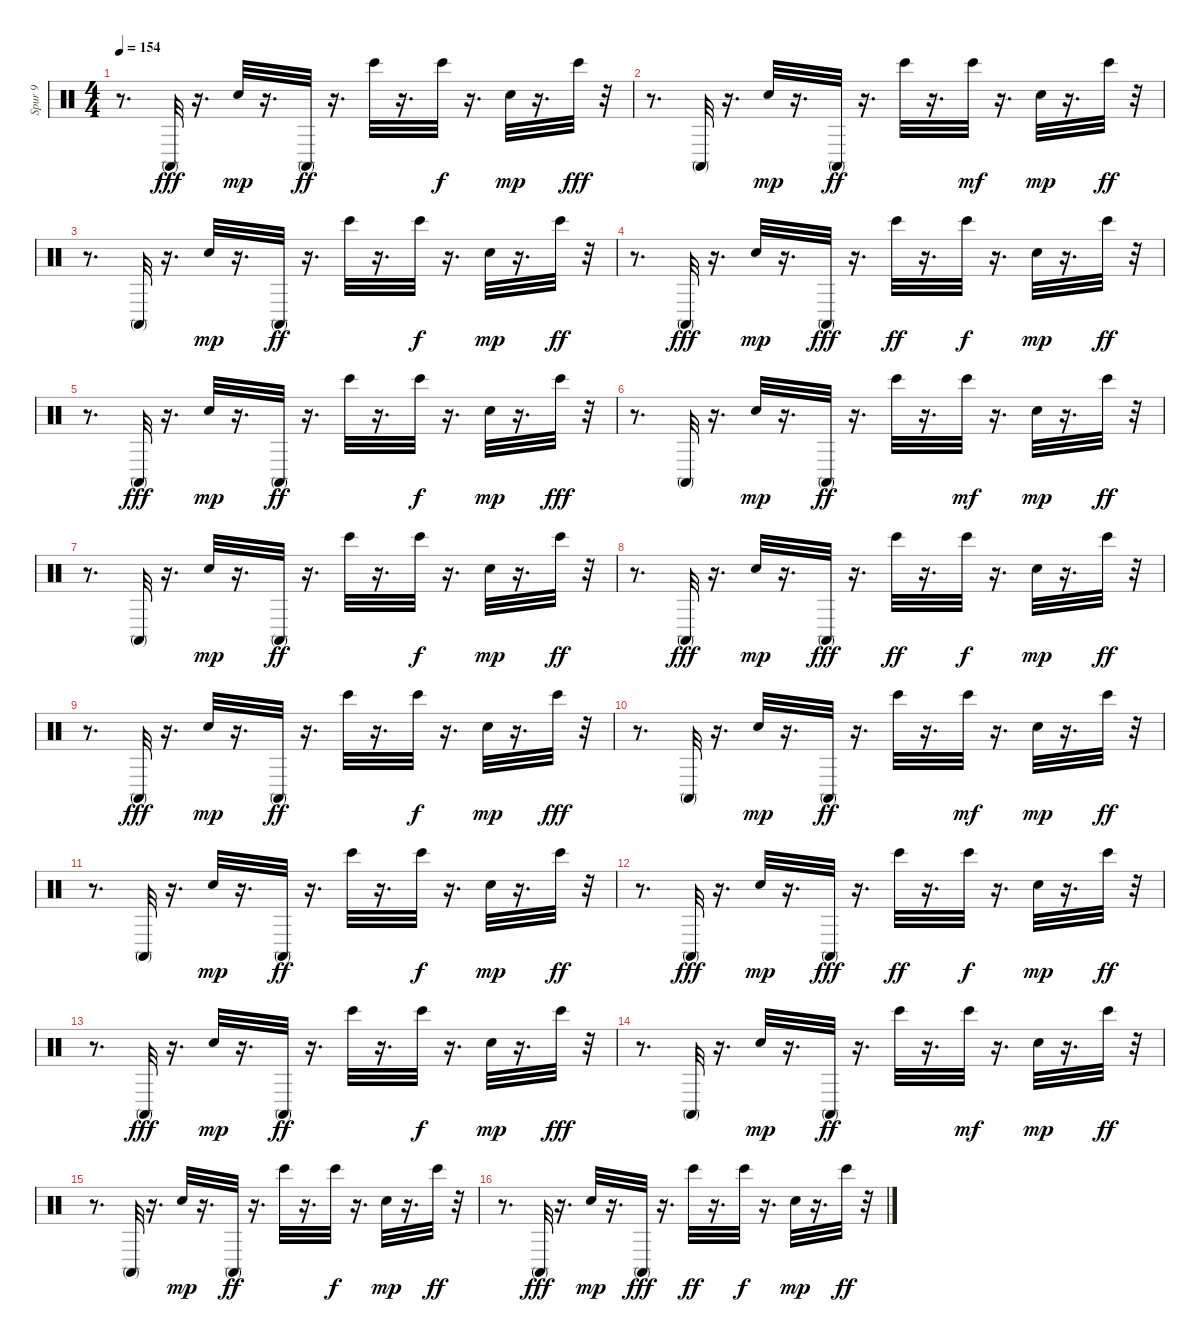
\track ("Spur 9" "Spur 9") {instrument percussion}
\staff {score}
\articulation defaults
\ts (4 4)
\tempo 154
\clef neutral
\ks c
r.8{d dy ff} "Conga high (mute)".32{dy fff} r.16{d} "Hand Clap (hit)".32{dy mp} r.16{d} "Conga high (mute)".32{dy ff} r.16{d} "Bongo High (hit)".32 r.16{d} "Bongo High (hit)".32{dy f} r.16{d} "Hand Clap (hit)".32{dy mp} r.16{d} "Bongo High (hit)".32{dy fff} r.32 |
r.8{d} "Conga high (mute)".32 r.16{d} "Hand Clap (hit)".32{dy mp} r.16{d} "Conga high (mute)".32{dy ff} r.16{d} "Bongo High (hit)".32 r.16{d} "Bongo High (hit)".32{dy mf} r.16{d} "Hand Clap (hit)".32{dy mp} r.16{d} "Bongo High (hit)".32{dy ff} r.32 |
r.8{d} "Conga high (mute)".32 r.16{d} "Hand Clap (hit)".32{dy mp} r.16{d} "Conga high (mute)".32{dy ff} r.16{d} "Bongo High (hit)".32 r.16{d} "Bongo High (hit)".32{dy f} r.16{d} "Hand Clap (hit)".32{dy mp} r.16{d} "Bongo High (hit)".32{dy ff} r.32 |
r.8{d} "Conga high (mute)".32{dy fff} r.16{d} "Hand Clap (hit)".32{dy mp} r.16{d} "Conga high (mute)".32{dy fff} r.16{d} "Bongo High (hit)".32{dy ff} r.16{d} "Bongo High (hit)".32{dy f} r.16{d} "Hand Clap (hit)".32{dy mp} r.16{d} "Bongo High (hit)".32{dy ff} r.32 |
r.8{d} "Conga high (mute)".32{dy fff} r.16{d} "Hand Clap (hit)".32{dy mp} r.16{d} "Conga high (mute)".32{dy ff} r.16{d} "Bongo High (hit)".32 r.16{d} "Bongo High (hit)".32{dy f} r.16{d} "Hand Clap (hit)".32{dy mp} r.16{d} "Bongo High (hit)".32{dy fff} r.32 |
r.8{d} "Conga high (mute)".32 r.16{d} "Hand Clap (hit)".32{dy mp} r.16{d} "Conga high (mute)".32{dy ff} r.16{d} "Bongo High (hit)".32 r.16{d} "Bongo High (hit)".32{dy mf} r.16{d} "Hand Clap (hit)".32{dy mp} r.16{d} "Bongo High (hit)".32{dy ff} r.32 |
r.8{d} "Conga high (mute)".32 r.16{d} "Hand Clap (hit)".32{dy mp} r.16{d} "Conga high (mute)".32{dy ff} r.16{d} "Bongo High (hit)".32 r.16{d} "Bongo High (hit)".32{dy f} r.16{d} "Hand Clap (hit)".32{dy mp} r.16{d} "Bongo High (hit)".32{dy ff} r.32 |
r.8{d} "Conga high (mute)".32{dy fff} r.16{d} "Hand Clap (hit)".32{dy mp} r.16{d} "Conga high (mute)".32{dy fff} r.16{d} "Bongo High (hit)".32{dy ff} r.16{d} "Bongo High (hit)".32{dy f} r.16{d} "Hand Clap (hit)".32{dy mp} r.16{d} "Bongo High (hit)".32{dy ff} r.32 |
r.8{d} "Conga high (mute)".32{dy fff} r.16{d} "Hand Clap (hit)".32{dy mp} r.16{d} "Conga high (mute)".32{dy ff} r.16{d} "Bongo High (hit)".32 r.16{d} "Bongo High (hit)".32{dy f} r.16{d} "Hand Clap (hit)".32{dy mp} r.16{d} "Bongo High (hit)".32{dy fff} r.32 |
r.8{d} "Conga high (mute)".32 r.16{d} "Hand Clap (hit)".32{dy mp} r.16{d} "Conga high (mute)".32{dy ff} r.16{d} "Bongo High (hit)".32 r.16{d} "Bongo High (hit)".32{dy mf} r.16{d} "Hand Clap (hit)".32{dy mp} r.16{d} "Bongo High (hit)".32{dy ff} r.32 |
r.8{d} "Conga high (mute)".32 r.16{d} "Hand Clap (hit)".32{dy mp} r.16{d} "Conga high (mute)".32{dy ff} r.16{d} "Bongo High (hit)".32 r.16{d} "Bongo High (hit)".32{dy f} r.16{d} "Hand Clap (hit)".32{dy mp} r.16{d} "Bongo High (hit)".32{dy ff} r.32 |
r.8{d} "Conga high (mute)".32{dy fff} r.16{d} "Hand Clap (hit)".32{dy mp} r.16{d} "Conga high (mute)".32{dy fff} r.16{d} "Bongo High (hit)".32{dy ff} r.16{d} "Bongo High (hit)".32{dy f} r.16{d} "Hand Clap (hit)".32{dy mp} r.16{d} "Bongo High (hit)".32{dy ff} r.32 |
r.8{d} "Conga high (mute)".32{dy fff} r.16{d} "Hand Clap (hit)".32{dy mp} r.16{d} "Conga high (mute)".32{dy ff} r.16{d} "Bongo High (hit)".32 r.16{d} "Bongo High (hit)".32{dy f} r.16{d} "Hand Clap (hit)".32{dy mp} r.16{d} "Bongo High (hit)".32{dy fff} r.32 |
r.8{d} "Conga high (mute)".32 r.16{d} "Hand Clap (hit)".32{dy mp} r.16{d} "Conga high (mute)".32{dy ff} r.16{d} "Bongo High (hit)".32 r.16{d} "Bongo High (hit)".32{dy mf} r.16{d} "Hand Clap (hit)".32{dy mp} r.16{d} "Bongo High (hit)".32{dy ff} r.32 |
r.8{d} "Conga high (mute)".32 r.16{d} "Hand Clap (hit)".32{dy mp} r.16{d} "Conga high (mute)".32{dy ff} r.16{d} "Bongo High (hit)".32 r.16{d} "Bongo High (hit)".32{dy f} r.16{d} "Hand Clap (hit)".32{dy mp} r.16{d} "Bongo High (hit)".32{dy ff} r.32 |
r.8{d} "Conga high (mute)".32{dy fff} r.16{d} "Hand Clap (hit)".32{dy mp} r.16{d} "Conga high (mute)".32{dy fff} r.16{d} "Bongo High (hit)".32{dy ff} r.16{d} "Bongo High (hit)".32{dy f} r.16{d} "Hand Clap (hit)".32{dy mp} r.16{d} "Bongo High (hit)".32{dy ff} r.32
